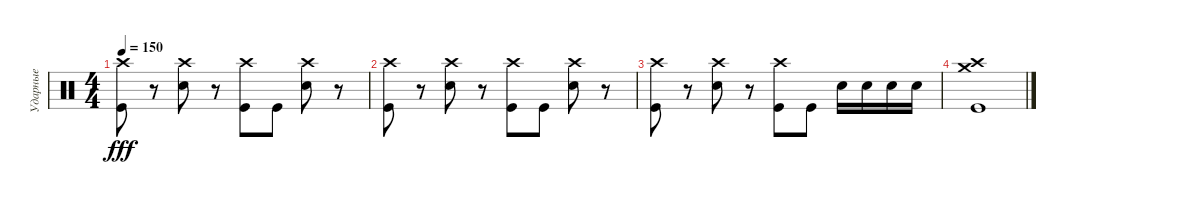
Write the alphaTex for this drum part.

\track ("Ударные" "Ударные") {instrument percussion}
\staff {score}
\articulation defaults
\ts (4 4)
\tempo 150
\clef neutral
\ks c
("Crash high (hit)" "Kick (hit)").8{dy fff} r.8 ("Crash high (hit)" "Electric Snare (hit)").8 r.8 ("Crash high (hit)" "Kick (hit)").8 "Kick (hit)".8 ("Crash high (hit)" "Electric Snare (hit)").8 r.8 |
("Crash high (hit)" "Kick (hit)").8 r.8 ("Crash high (hit)" "Electric Snare (hit)").8 r.8 ("Crash high (hit)" "Kick (hit)").8 "Kick (hit)".8 ("Crash high (hit)" "Electric Snare (hit)").8 r.8 |
("Crash high (hit)" "Kick (hit)").8 r.8 ("Crash high (hit)" "Electric Snare (hit)").8 r.8 ("Crash high (hit)" "Kick (hit)").8 "Kick (hit)".8 "Electric Snare (hit)".16 "Electric Snare (hit)".16 "Electric Snare (hit)".16 "Electric Snare (hit)".16 |
("Crash high (hit)" "Kick (hit)" "Crash medium (hit)").1
